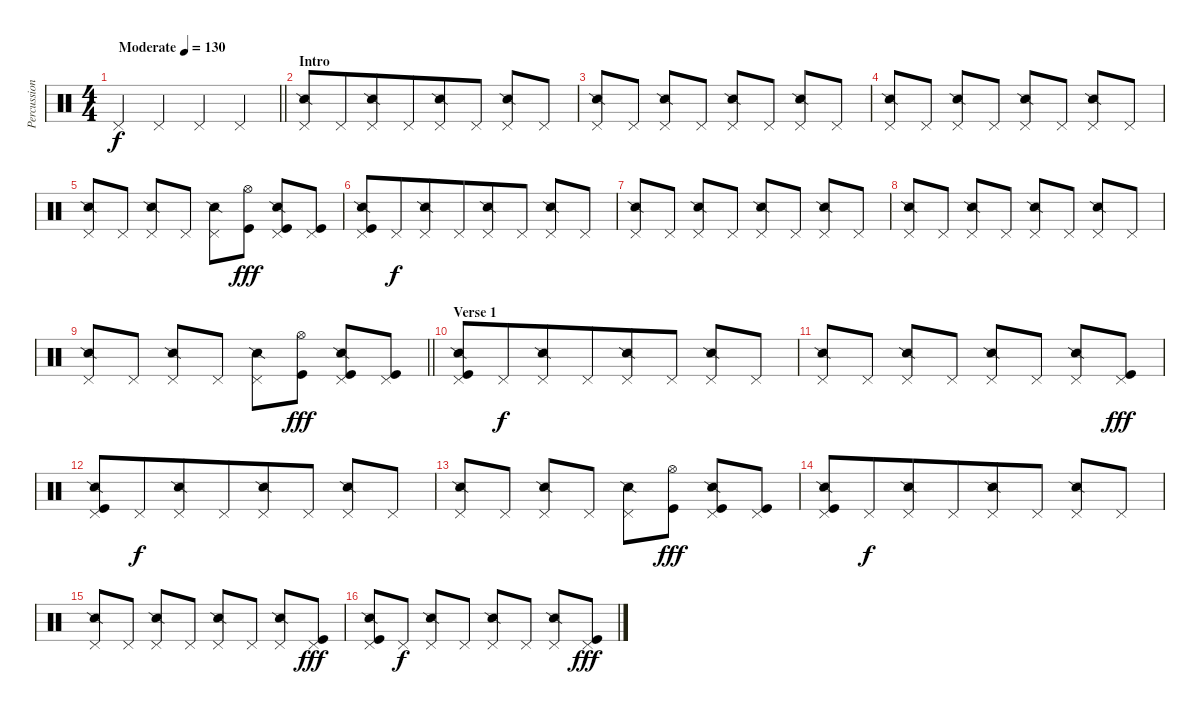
\track ("Percussion" "Percussion") {instrument percussion bank 255}
\staff {score}
\articulation defaults
\ts (4 4)
\tempo (130 "Moderate")
\clef neutral
\barLineRight lightlight
\ks c "Pedal Hi-Hat (hit)".4{dy f} "Pedal Hi-Hat (hit)".4 "Pedal Hi-Hat (hit)".4 "Pedal Hi-Hat (hit)".4
|
\section ("" "Intro")
("Pedal Hi-Hat (hit)" "Snare (side stick) 2").8{beam merge} "Pedal Hi-Hat (hit)".8{beam merge} ("Pedal Hi-Hat (hit)" "Snare (side stick) 2").8 "Pedal Hi-Hat (hit)".8{beam merge} ("Pedal Hi-Hat (hit)" "Snare (side stick) 2").8{beam merge} "Pedal Hi-Hat (hit)".8 ("Pedal Hi-Hat (hit)" "Snare (side stick) 2").8 "Pedal Hi-Hat (hit)".8 |
("Pedal Hi-Hat (hit)" "Snare (side stick) 2").8 "Pedal Hi-Hat (hit)".8 ("Pedal Hi-Hat (hit)" "Snare (side stick) 2").8 "Pedal Hi-Hat (hit)".8 ("Pedal Hi-Hat (hit)" "Snare (side stick) 2").8{beam merge} "Pedal Hi-Hat (hit)".8 ("Pedal Hi-Hat (hit)" "Snare (side stick) 2").8 "Pedal Hi-Hat (hit)".8 |
("Pedal Hi-Hat (hit)" "Snare (side stick) 2").8 "Pedal Hi-Hat (hit)".8 ("Pedal Hi-Hat (hit)" "Snare (side stick) 2").8 "Pedal Hi-Hat (hit)".8 ("Pedal Hi-Hat (hit)" "Snare (side stick) 2").8{beam merge} "Pedal Hi-Hat (hit)".8 ("Pedal Hi-Hat (hit)" "Snare (side stick) 2").8 "Pedal Hi-Hat (hit)".8 |
("Pedal Hi-Hat (hit)" "Snare (side stick) 2").8 "Pedal Hi-Hat (hit)".8 ("Pedal Hi-Hat (hit)" "Snare (side stick) 2").8 "Pedal Hi-Hat (hit)".8 ("Pedal Hi-Hat (hit)" "Snare (side stick) 2").8{beam merge} ("Kick (hit)" "Hi-Hat (open)").8{dy fff} ("Kick (hit)" "Pedal Hi-Hat (hit)" "Snare (side stick) 2").8 ("Kick (hit)" "Pedal Hi-Hat (hit)").8 |
("Kick (hit)" "Snare (side stick) 2" "Pedal Hi-Hat (hit)").8{beam merge} "Pedal Hi-Hat (hit)".8{dy f beam merge} ("Pedal Hi-Hat (hit)" "Snare (side stick) 2").8 "Pedal Hi-Hat (hit)".8{beam merge} ("Pedal Hi-Hat (hit)" "Snare (side stick) 2").8{beam merge} "Pedal Hi-Hat (hit)".8 ("Pedal Hi-Hat (hit)" "Snare (side stick) 2").8 "Pedal Hi-Hat (hit)".8 |
("Pedal Hi-Hat (hit)" "Snare (side stick) 2").8 "Pedal Hi-Hat (hit)".8 ("Pedal Hi-Hat (hit)" "Snare (side stick) 2").8 "Pedal Hi-Hat (hit)".8 ("Pedal Hi-Hat (hit)" "Snare (side stick) 2").8{beam merge} "Pedal Hi-Hat (hit)".8 ("Pedal Hi-Hat (hit)" "Snare (side stick) 2").8 "Pedal Hi-Hat (hit)".8 |
("Pedal Hi-Hat (hit)" "Snare (side stick) 2").8 "Pedal Hi-Hat (hit)".8 ("Pedal Hi-Hat (hit)" "Snare (side stick) 2").8 "Pedal Hi-Hat (hit)".8 ("Pedal Hi-Hat (hit)" "Snare (side stick) 2").8{beam merge} "Pedal Hi-Hat (hit)".8 ("Pedal Hi-Hat (hit)" "Snare (side stick) 2").8 "Pedal Hi-Hat (hit)".8 |
\barLineRight lightlight
("Pedal Hi-Hat (hit)" "Snare (side stick) 2").8 "Pedal Hi-Hat (hit)".8 ("Pedal Hi-Hat (hit)" "Snare (side stick) 2").8 "Pedal Hi-Hat (hit)".8 ("Pedal Hi-Hat (hit)" "Snare (side stick) 2").8{beam merge} ("Kick (hit)" "Hi-Hat (open)").8{dy fff} ("Kick (hit)" "Pedal Hi-Hat (hit)" "Snare (side stick) 2").8 ("Kick (hit)" "Pedal Hi-Hat (hit)").8 |
\section ("" "Verse 1")
("Kick (hit)" "Snare (side stick) 2" "Pedal Hi-Hat (hit)").8{beam merge} "Pedal Hi-Hat (hit)".8{dy f beam merge} ("Pedal Hi-Hat (hit)" "Snare (side stick) 2").8 "Pedal Hi-Hat (hit)".8{beam merge} ("Pedal Hi-Hat (hit)" "Snare (side stick) 2").8{beam merge} "Pedal Hi-Hat (hit)".8 ("Pedal Hi-Hat (hit)" "Snare (side stick) 2").8 "Pedal Hi-Hat (hit)".8 |
("Pedal Hi-Hat (hit)" "Snare (side stick) 2").8 "Pedal Hi-Hat (hit)".8 ("Pedal Hi-Hat (hit)" "Snare (side stick) 2").8 "Pedal Hi-Hat (hit)".8 ("Pedal Hi-Hat (hit)" "Snare (side stick) 2").8{beam merge} "Pedal Hi-Hat (hit)".8 ("Pedal Hi-Hat (hit)" "Snare (side stick) 2").8 ("Pedal Hi-Hat (hit)" "Kick (hit)").8{dy fff} |
("Kick (hit)" "Snare (side stick) 2" "Pedal Hi-Hat (hit)").8{beam merge} "Pedal Hi-Hat (hit)".8{dy f beam merge} ("Pedal Hi-Hat (hit)" "Snare (side stick) 2").8 "Pedal Hi-Hat (hit)".8{beam merge} ("Pedal Hi-Hat (hit)" "Snare (side stick) 2").8{beam merge} "Pedal Hi-Hat (hit)".8 ("Pedal Hi-Hat (hit)" "Snare (side stick) 2").8 "Pedal Hi-Hat (hit)".8 |
("Pedal Hi-Hat (hit)" "Snare (side stick) 2").8 "Pedal Hi-Hat (hit)".8 ("Pedal Hi-Hat (hit)" "Snare (side stick) 2").8 "Pedal Hi-Hat (hit)".8 ("Pedal Hi-Hat (hit)" "Snare (side stick) 2").8{beam merge} ("Kick (hit)" "Hi-Hat (open)").8{dy fff} ("Kick (hit)" "Pedal Hi-Hat (hit)" "Snare (side stick) 2").8 ("Kick (hit)" "Pedal Hi-Hat (hit)").8 |
("Kick (hit)" "Snare (side stick) 2" "Pedal Hi-Hat (hit)").8{beam merge} "Pedal Hi-Hat (hit)".8{dy f beam merge} ("Pedal Hi-Hat (hit)" "Snare (side stick) 2").8 "Pedal Hi-Hat (hit)".8{beam merge} ("Pedal Hi-Hat (hit)" "Snare (side stick) 2").8{beam merge} "Pedal Hi-Hat (hit)".8 ("Pedal Hi-Hat (hit)" "Snare (side stick) 2").8 "Pedal Hi-Hat (hit)".8 |
("Pedal Hi-Hat (hit)" "Snare (side stick) 2").8 "Pedal Hi-Hat (hit)".8 ("Pedal Hi-Hat (hit)" "Snare (side stick) 2").8 "Pedal Hi-Hat (hit)".8 ("Pedal Hi-Hat (hit)" "Snare (side stick) 2").8{beam merge} "Pedal Hi-Hat (hit)".8 ("Pedal Hi-Hat (hit)" "Snare (side stick) 2").8 ("Pedal Hi-Hat (hit)" "Kick (hit)").8{dy fff} |
("Pedal Hi-Hat (hit)" "Snare (side stick) 2" "Kick (hit)").8 "Pedal Hi-Hat (hit)".8{dy f} ("Pedal Hi-Hat (hit)" "Snare (side stick) 2").8 "Pedal Hi-Hat (hit)".8 ("Pedal Hi-Hat (hit)" "Snare (side stick) 2").8{beam merge} "Pedal Hi-Hat (hit)".8 ("Pedal Hi-Hat (hit)" "Snare (side stick) 2").8 ("Pedal Hi-Hat (hit)" "Kick (hit)").8{dy fff}
